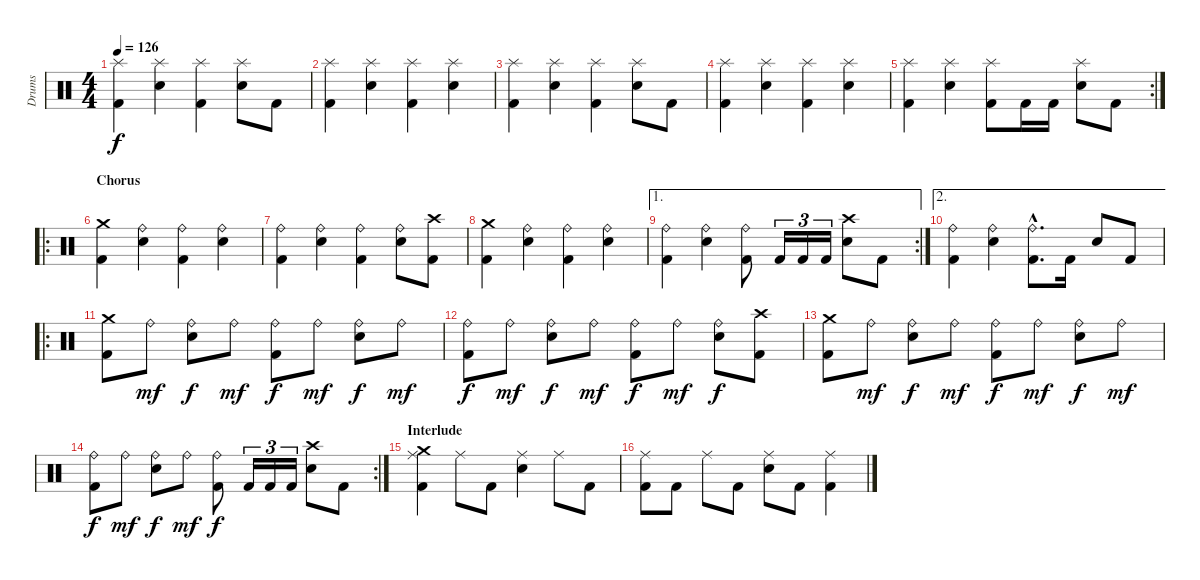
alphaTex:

\track ("Drums" "Drums") {instrument percussion}
\staff {score}
\articulation defaults
\ts (4 4)
\tempo 126
\clef neutral
\ks c
("Kick (hit) 2" "Splash (hit)").4{dy f} ("Electric Snare (hit)" "Splash (hit)").4 ("Kick (hit) 2" "Splash (hit)").4 ("Electric Snare (hit)" "Splash (hit)").8 "Kick (hit) 2".8 |
("Kick (hit) 2" "Splash (hit)").4 ("Electric Snare (hit)" "Splash (hit)").4 ("Kick (hit) 2" "Splash (hit)").4 ("Electric Snare (hit)" "Splash (hit)").4 |
("Kick (hit) 2" "Splash (hit)").4 ("Electric Snare (hit)" "Splash (hit)").4 ("Kick (hit) 2" "Splash (hit)").4 ("Electric Snare (hit)" "Splash (hit)").8 "Kick (hit) 2".8 |
("Kick (hit) 2" "Splash (hit)").4 ("Electric Snare (hit)" "Splash (hit)").4 ("Kick (hit) 2" "Splash (hit)").4 ("Electric Snare (hit)" "Splash (hit)").4 |
\rc 2
("Kick (hit) 2" "Splash (hit)").4 ("Electric Snare (hit)" "Splash (hit)").4 ("Kick (hit) 2" "Splash (hit)").8 "Kick (hit) 2".16 "Kick (hit) 2".16 ("Electric Snare (hit)" "Splash (hit)").8 "Kick (hit) 2".8 |
\ro
\section ("" "Chorus")
("Kick (hit) 2" "Crash medium (hit)").4 ("Electric Snare (hit)" "Ride (bell)").4 ("Kick (hit) 2" "Ride (bell)").4 ("Electric Snare (hit)" "Ride (bell)").4 |
("Kick (hit) 2" "Ride (bell)").4 ("Electric Snare (hit)" "Ride (bell)").4 ("Kick (hit) 2" "Ride (bell)").4 ("Electric Snare (hit)" "Ride (bell)").8 ("Kick (hit) 2" "Crash high (hit)").8 |
("Kick (hit) 2" "Crash medium (hit)").4 ("Electric Snare (hit)" "Ride (bell)").4 ("Kick (hit) 2" "Ride (bell)").4 ("Electric Snare (hit)" "Ride (bell)").4 |
\ae 1
\rc 2
("Kick (hit) 2" "Ride (bell)").4 ("Electric Snare (hit)" "Ride (bell)").4 ("Kick (hit) 2" "Ride (bell)").8 "Kick (hit) 2".16{tu (3 2)} "Kick (hit) 2".16{tu (3 2)} "Kick (hit) 2".16{tu (3 2)} ("Electric Snare (hit)" "Crash high (hit)").8 "Kick (hit) 2".8 |
\ae 2
("Kick (hit) 2" "Ride (bell)").4 ("Electric Snare (hit)" "Ride (bell)").4 ("Kick (hit) 2"{hac} "Ride (bell)"{hac}).8{d} "Kick (hit) 2".16 "Electric Snare (hit)".8 "Kick (hit) 2".8 |
\ro
("Kick (hit) 2" "Crash medium (hit)").8 "Ride (bell)".8{dy mf} ("Electric Snare (hit)" "Ride (bell)").8{dy f} "Ride (bell)".8{dy mf} ("Kick (hit) 2" "Ride (bell)").8{dy f} "Ride (bell)".8{dy mf} ("Electric Snare (hit)" "Ride (bell)").8{dy f} "Ride (bell)".8{dy mf} |
("Kick (hit) 2" "Ride (bell)").8{dy f} "Ride (bell)".8{dy mf} ("Electric Snare (hit)" "Ride (bell)").8{dy f} "Ride (bell)".8{dy mf} ("Kick (hit) 2" "Ride (bell)").8{dy f} "Ride (bell)".8{dy mf} ("Electric Snare (hit)" "Ride (bell)").8{dy f} ("Kick (hit) 2" "Crash high (hit)").8 |
("Kick (hit) 2" "Crash medium (hit)").8 "Ride (bell)".8{dy mf} ("Electric Snare (hit)" "Ride (bell)").8{dy f} "Ride (bell)".8{dy mf} ("Kick (hit) 2" "Ride (bell)").8{dy f} "Ride (bell)".8{dy mf} ("Electric Snare (hit)" "Ride (bell)").8{dy f} "Ride (bell)".8{dy mf} |
\rc 2
("Kick (hit) 2" "Ride (bell)").8{dy f} "Ride (bell)".8{dy mf} ("Electric Snare (hit)" "Ride (bell)").8{dy f} "Ride (bell)".8{dy mf} ("Kick (hit) 2" "Ride (bell)").8{dy f} "Kick (hit) 2".16{tu (3 2)} "Kick (hit) 2".16{tu (3 2)} "Kick (hit) 2".16{tu (3 2)} ("Electric Snare (hit)" "Crash high (hit)").8 "Kick (hit) 2".8 |
\section ("" "Interlude")
("Kick (hit) 2" "Ride (middle)" "Crash medium (hit)").4 "Ride (middle)".8 "Kick (hit) 2".8 ("Electric Snare (hit)" "Ride (middle)").4 "Ride (middle)".8 "Kick (hit) 2".8 |
("Kick (hit) 2" "Ride (middle)").8 "Kick (hit) 2".8 "Ride (middle)".8 "Kick (hit) 2".8 ("Electric Snare (hit)" "Ride (middle)").8 "Kick (hit) 2".8 ("Kick (hit) 2" "Ride (middle)").4
